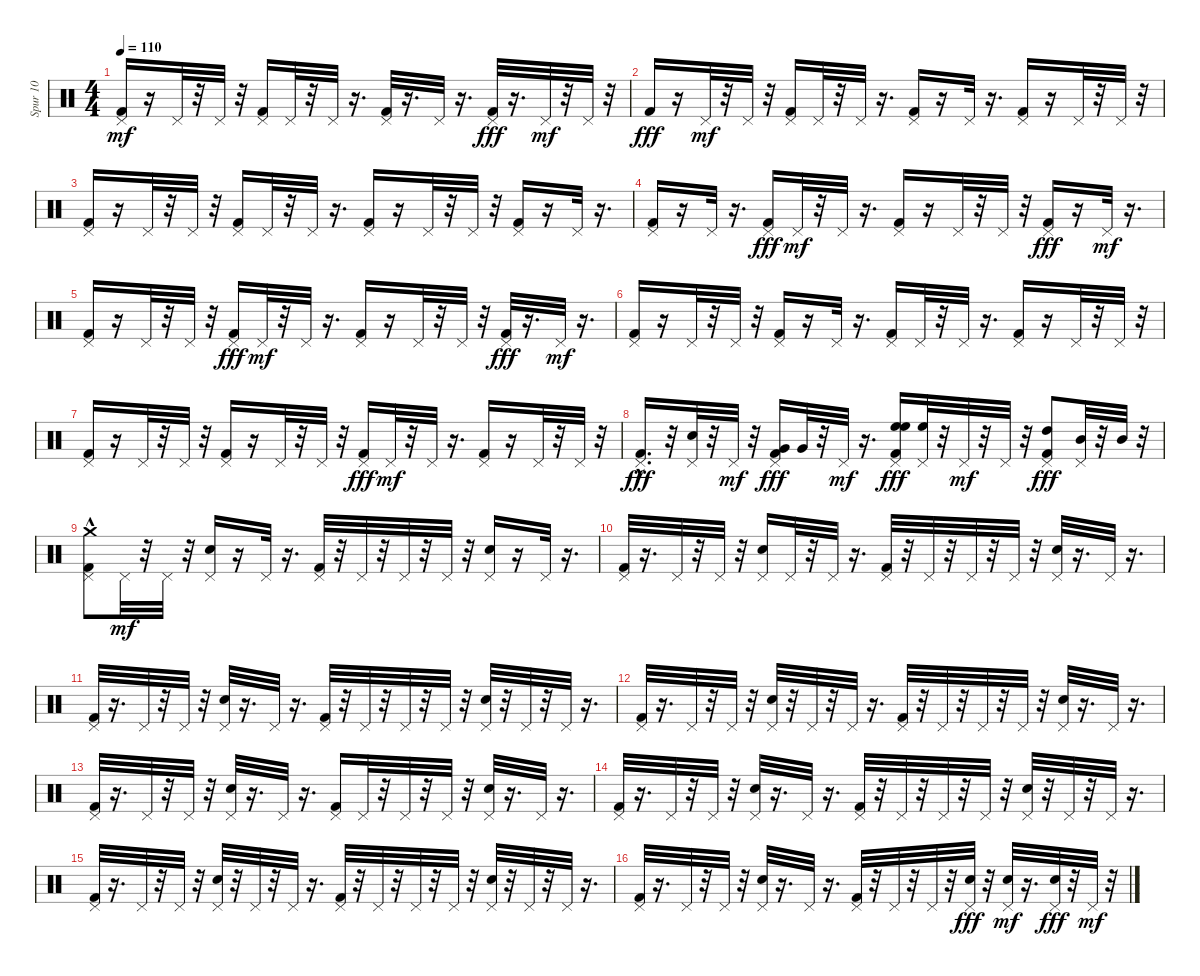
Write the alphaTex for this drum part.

\track ("Spur 10" "Spur 10") {instrument percussion}
\staff {score}
\articulation defaults
\ts (4 4)
\tempo 110
\clef neutral
\ks c
("Kick (hit) 2" "Pedal Hi-Hat (hit)").16{dy mf} r.16 "Pedal Hi-Hat (hit)".32 r.32 "Pedal Hi-Hat (hit)".32 r.32 ("Kick (hit) 2" "Pedal Hi-Hat (hit)").16 "Pedal Hi-Hat (hit)".32 r.32 "Pedal Hi-Hat (hit)".32 r.16{d} ("Kick (hit) 2" "Pedal Hi-Hat (hit)").32 r.16{d} "Pedal Hi-Hat (hit)".32 r.16{d} ("Pedal Hi-Hat (hit)" "Kick (hit) 2").32{dy fff} r.16{d} "Pedal Hi-Hat (hit)".32{dy mf} r.32 "Pedal Hi-Hat (hit)".32 r.32 |
"Kick (hit) 2".16{dy fff} r.16 "Pedal Hi-Hat (hit)".32{dy mf} r.32 "Pedal Hi-Hat (hit)".32 r.32 ("Kick (hit) 2" "Pedal Hi-Hat (hit)").16 "Pedal Hi-Hat (hit)".32 r.32 "Pedal Hi-Hat (hit)".32 r.16{d} ("Kick (hit) 2" "Pedal Hi-Hat (hit)").16 r.16 "Pedal Hi-Hat (hit)".32 r.16{d} ("Kick (hit) 2" "Pedal Hi-Hat (hit)").16 r.16 "Pedal Hi-Hat (hit)".32 r.32 "Pedal Hi-Hat (hit)".32 r.32 |
("Kick (hit) 2" "Pedal Hi-Hat (hit)").16 r.16 "Pedal Hi-Hat (hit)".32 r.32 "Pedal Hi-Hat (hit)".32 r.32 ("Kick (hit) 2" "Pedal Hi-Hat (hit)").16 "Pedal Hi-Hat (hit)".32 r.32 "Pedal Hi-Hat (hit)".32 r.16{d} ("Kick (hit) 2" "Pedal Hi-Hat (hit)").16 r.16 "Pedal Hi-Hat (hit)".32 r.32 "Pedal Hi-Hat (hit)".32 r.32 ("Kick (hit) 2" "Pedal Hi-Hat (hit)").16 r.16 "Pedal Hi-Hat (hit)".32 r.16{d} |
("Kick (hit) 2" "Pedal Hi-Hat (hit)").16 r.16 "Pedal Hi-Hat (hit)".32 r.16{d} ("Pedal Hi-Hat (hit)" "Kick (hit) 2").16{dy fff} "Pedal Hi-Hat (hit)".32{dy mf} r.32 "Pedal Hi-Hat (hit)".32 r.16{d} ("Kick (hit) 2" "Pedal Hi-Hat (hit)").16 r.16 "Pedal Hi-Hat (hit)".32 r.32 "Pedal Hi-Hat (hit)".32 r.32 ("Pedal Hi-Hat (hit)" "Kick (hit) 2").16{dy fff} r.16 "Pedal Hi-Hat (hit)".32{dy mf} r.16{d} |
("Kick (hit) 2" "Pedal Hi-Hat (hit)").16 r.16 "Pedal Hi-Hat (hit)".32 r.32 "Pedal Hi-Hat (hit)".32 r.32 ("Pedal Hi-Hat (hit)" "Kick (hit) 2").16{dy fff} "Pedal Hi-Hat (hit)".32{dy mf} r.32 "Pedal Hi-Hat (hit)".32 r.16{d} ("Kick (hit) 2" "Pedal Hi-Hat (hit)").16 r.16 "Pedal Hi-Hat (hit)".32 r.32 "Pedal Hi-Hat (hit)".32 r.32 ("Pedal Hi-Hat (hit)" "Kick (hit) 2").32{dy fff} r.16{d} "Pedal Hi-Hat (hit)".32{dy mf} r.16{d} |
("Kick (hit) 2" "Pedal Hi-Hat (hit)").16 r.16 "Pedal Hi-Hat (hit)".32 r.32 "Pedal Hi-Hat (hit)".32 r.32 ("Kick (hit) 2" "Pedal Hi-Hat (hit)").16 r.16 "Pedal Hi-Hat (hit)".32 r.16{d} ("Kick (hit) 2" "Pedal Hi-Hat (hit)").16 "Pedal Hi-Hat (hit)".32 r.32 "Pedal Hi-Hat (hit)".32 r.16{d} ("Kick (hit) 2" "Pedal Hi-Hat (hit)").16 r.16 "Pedal Hi-Hat (hit)".32 r.32 "Pedal Hi-Hat (hit)".32 r.32 |
("Kick (hit) 2" "Pedal Hi-Hat (hit)").16 r.16 "Pedal Hi-Hat (hit)".32 r.32 "Pedal Hi-Hat (hit)".32 r.32 ("Kick (hit) 2" "Pedal Hi-Hat (hit)").16 r.16 "Pedal Hi-Hat (hit)".32 r.32 "Pedal Hi-Hat (hit)".32 r.32 ("Pedal Hi-Hat (hit)" "Kick (hit) 2").16{dy fff} "Pedal Hi-Hat (hit)".32{dy mf} r.32 "Pedal Hi-Hat (hit)".32 r.16{d} ("Kick (hit) 2" "Pedal Hi-Hat (hit)").16 r.16 "Pedal Hi-Hat (hit)".32 r.32 "Pedal Hi-Hat (hit)".32 r.32 |
("Pedal Hi-Hat (hit)" "Kick (hit) 2"{hac}).16{d dy fff} r.32 ("Pedal Hi-Hat (hit)" "Electric Snare (hit)").32 r.32 "Pedal Hi-Hat (hit)".32{dy mf} r.32 ("Kick (hit) 2" "Pedal Hi-Hat (hit)" "Very Low Tom (hit)").16{dy fff} "Very Low Tom (hit)".32 r.32 "Pedal Hi-Hat (hit)".32{dy mf} r.16{d} ("Kick (hit) 2" "Pedal Hi-Hat (hit)" "High Floor Tom (hit)" "High Floor Tom (hit)").16{dy fff} ("Pedal Hi-Hat (hit)" "High Floor Tom (hit)").32 r.32 "Pedal Hi-Hat (hit)".32{dy mf} r.32 "Pedal Hi-Hat (hit)".32 r.32 ("Kick (hit) 2" "Pedal Hi-Hat (hit)" "High Tom (hit)").8{dy fff} ("Pedal Hi-Hat (hit)" "Mid Tom (hit)").32 r.32 "Mid Tom (hit)".32 r.32 |
("Kick (hit) 2" "Pedal Hi-Hat (hit)" "Crash medium (hit)"{hac}).8 "Pedal Hi-Hat (hit)".32{dy mf} r.32 "Pedal Hi-Hat (hit)".32 r.32 ("Electric Snare (hit)" "Pedal Hi-Hat (hit)").16 r.16 "Pedal Hi-Hat (hit)".32 r.16{d} ("Kick (hit) 2" "Pedal Hi-Hat (hit)").32 r.32 "Pedal Hi-Hat (hit)".32 r.32 "Pedal Hi-Hat (hit)".32 r.32 "Pedal Hi-Hat (hit)".32 r.32 ("Electric Snare (hit)" "Pedal Hi-Hat (hit)").16 r.16 "Pedal Hi-Hat (hit)".32 r.16{d} |
("Kick (hit) 2" "Pedal Hi-Hat (hit)").32 r.16{d} "Pedal Hi-Hat (hit)".32 r.32 "Pedal Hi-Hat (hit)".32 r.32 ("Electric Snare (hit)" "Pedal Hi-Hat (hit)").16 "Pedal Hi-Hat (hit)".32 r.32 "Pedal Hi-Hat (hit)".32 r.16{d} ("Kick (hit) 2" "Pedal Hi-Hat (hit)").32 r.32 "Pedal Hi-Hat (hit)".32 r.32 "Pedal Hi-Hat (hit)".32 r.32 "Pedal Hi-Hat (hit)".32 r.32 ("Electric Snare (hit)" "Pedal Hi-Hat (hit)").32 r.16{d} "Pedal Hi-Hat (hit)".32 r.16{d} |
("Kick (hit) 2" "Pedal Hi-Hat (hit)").32 r.16{d} "Pedal Hi-Hat (hit)".32 r.32 "Pedal Hi-Hat (hit)".32 r.32 ("Electric Snare (hit)" "Pedal Hi-Hat (hit)").32 r.16{d} "Pedal Hi-Hat (hit)".32 r.16{d} ("Kick (hit) 2" "Pedal Hi-Hat (hit)").32 r.32 "Pedal Hi-Hat (hit)".32 r.32 "Pedal Hi-Hat (hit)".32 r.32 "Pedal Hi-Hat (hit)".32 r.32 ("Electric Snare (hit)" "Pedal Hi-Hat (hit)").32 r.32 "Pedal Hi-Hat (hit)".32 r.32 "Pedal Hi-Hat (hit)".32 r.16{d} |
("Kick (hit) 2" "Pedal Hi-Hat (hit)").32 r.16{d} "Pedal Hi-Hat (hit)".32 r.32 "Pedal Hi-Hat (hit)".32 r.32 ("Electric Snare (hit)" "Pedal Hi-Hat (hit)").32 r.32 "Pedal Hi-Hat (hit)".32 r.32 "Pedal Hi-Hat (hit)".32 r.16{d} ("Kick (hit) 2" "Pedal Hi-Hat (hit)").32 r.32 "Pedal Hi-Hat (hit)".32 r.32 "Pedal Hi-Hat (hit)".32 r.32 "Pedal Hi-Hat (hit)".32 r.32 ("Electric Snare (hit)" "Pedal Hi-Hat (hit)").32 r.16{d} "Pedal Hi-Hat (hit)".32 r.16{d} |
("Kick (hit) 2" "Pedal Hi-Hat (hit)").32 r.16{d} "Pedal Hi-Hat (hit)".32 r.32 "Pedal Hi-Hat (hit)".32 r.32 ("Electric Snare (hit)" "Pedal Hi-Hat (hit)").32 r.16{d} "Pedal Hi-Hat (hit)".32 r.16{d} ("Kick (hit) 2" "Pedal Hi-Hat (hit)").16 "Pedal Hi-Hat (hit)".32 r.32 "Pedal Hi-Hat (hit)".32 r.32 "Pedal Hi-Hat (hit)".32 r.32 ("Electric Snare (hit)" "Pedal Hi-Hat (hit)").32 r.16{d} "Pedal Hi-Hat (hit)".32 r.16{d} |
("Kick (hit) 2" "Pedal Hi-Hat (hit)").32 r.16{d} "Pedal Hi-Hat (hit)".32 r.32 "Pedal Hi-Hat (hit)".32 r.32 ("Electric Snare (hit)" "Pedal Hi-Hat (hit)").32 r.16{d} "Pedal Hi-Hat (hit)".32 r.16{d} ("Kick (hit) 2" "Pedal Hi-Hat (hit)").32 r.32 "Pedal Hi-Hat (hit)".32 r.32 "Pedal Hi-Hat (hit)".32 r.32 "Pedal Hi-Hat (hit)".32 r.32 ("Electric Snare (hit)" "Pedal Hi-Hat (hit)").32 r.32 "Pedal Hi-Hat (hit)".32 r.32 "Pedal Hi-Hat (hit)".32 r.16{d} |
("Kick (hit) 2" "Pedal Hi-Hat (hit)").32 r.16{d} "Pedal Hi-Hat (hit)".32 r.32 "Pedal Hi-Hat (hit)".32 r.32 ("Electric Snare (hit)" "Pedal Hi-Hat (hit)").32 r.32 "Pedal Hi-Hat (hit)".32 r.32 "Pedal Hi-Hat (hit)".32 r.16{d} ("Kick (hit) 2" "Pedal Hi-Hat (hit)").32 r.32 "Pedal Hi-Hat (hit)".32 r.32 "Pedal Hi-Hat (hit)".32 r.32 "Pedal Hi-Hat (hit)".32 r.32 ("Electric Snare (hit)" "Pedal Hi-Hat (hit)").32 r.32 "Pedal Hi-Hat (hit)".32 r.32 "Pedal Hi-Hat (hit)".32 r.16{d} |
("Kick (hit) 2" "Pedal Hi-Hat (hit)").32 r.16{d} "Pedal Hi-Hat (hit)".32 r.32 "Pedal Hi-Hat (hit)".32 r.32 ("Electric Snare (hit)" "Pedal Hi-Hat (hit)").32 r.16{d} "Pedal Hi-Hat (hit)".32 r.16{d} ("Kick (hit) 2" "Pedal Hi-Hat (hit)").32 r.32 "Pedal Hi-Hat (hit)".32 r.32 "Pedal Hi-Hat (hit)".32 r.32 ("Pedal Hi-Hat (hit)" "Electric Snare (hit)").32{dy fff} r.32 ("Electric Snare (hit)" "Pedal Hi-Hat (hit)").32{dy mf} r.16{d} ("Pedal Hi-Hat (hit)" "Electric Snare (hit)").32{dy fff} r.32 "Pedal Hi-Hat (hit)".32{dy mf} r.32
